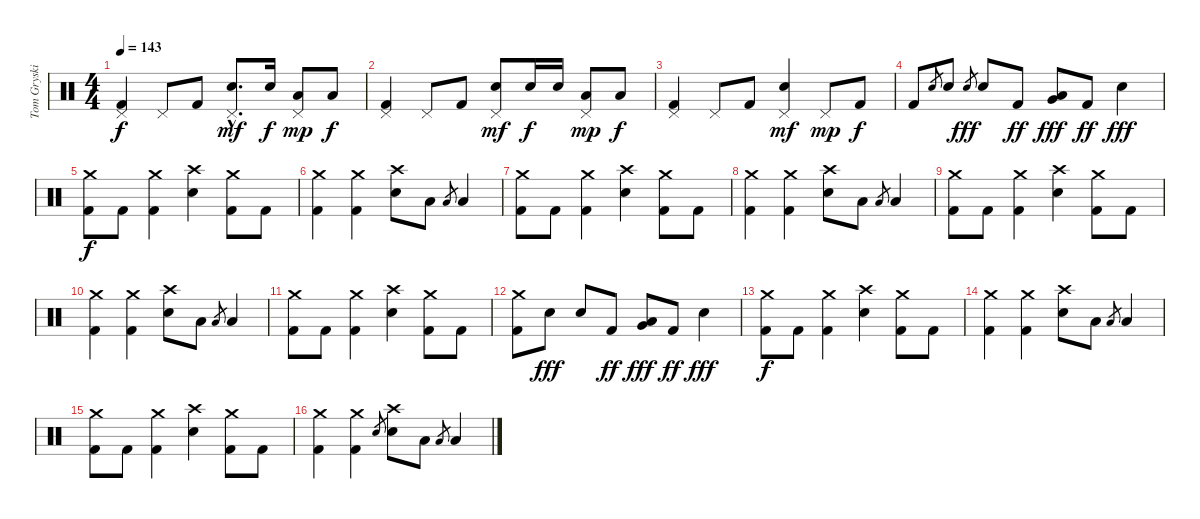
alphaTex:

\track ("Tom Gryskiewicz - Drums" "Tom Gryski") {instrument percussion}
\staff {score}
\articulation defaults
\ts (4 4)
\tempo 143
\clef neutral
\ks c
("Pedal Hi-Hat (hit)" "Kick (hit) 2").4{dy f} "Pedal Hi-Hat (hit)".8 "Kick (hit) 2".8 ("Pedal Hi-Hat (hit)"{hac} "Electric Snare (hit)"{hac}).8{d dy mf} "Electric Snare (hit)".16{dy f} ("Pedal Hi-Hat (hit)" "Low Tom (hit)").8{dy mp} "Low Tom (hit)".8{dy f} |
("Pedal Hi-Hat (hit)" "Kick (hit) 2").4 "Pedal Hi-Hat (hit)".8 "Kick (hit) 2".8 ("Pedal Hi-Hat (hit)" "Electric Snare (hit)").8{dy mf} "Electric Snare (hit)".16{dy f} "Electric Snare (hit)".16 ("Pedal Hi-Hat (hit)" "Low Tom (hit)").8{dy mp} "Low Tom (hit)".8{dy f} |
("Pedal Hi-Hat (hit)" "Kick (hit) 2").4 "Pedal Hi-Hat (hit)".8 "Kick (hit) 2".8 ("Pedal Hi-Hat (hit)" "Electric Snare (hit)").4{dy mf} "Pedal Hi-Hat (hit)".8{dy mp} "Kick (hit) 2".8{dy f} |
"Kick (hit) 2".8 "Electric Snare (hit)".8{gr} "Electric Snare (hit)".8 "Electric Snare (hit)".8{gr dy fff} "Electric Snare (hit)".8 "Kick (hit) 2".8{dy ff} ("Very Low Tom (hit)" "Low Tom (hit)").8{dy fff} "Kick (hit) 2".8{dy ff} "Electric Snare (hit)".4{dy fff} |
("Crash medium (hit)" "Kick (hit) 2").8{dy f} "Kick (hit) 2".8 ("Crash medium (hit)" "Kick (hit) 2").4 ("Crash high (hit)" "Electric Snare (hit)").4 ("Crash medium (hit)" "Kick (hit) 2").8 "Kick (hit) 2".8 |
("Crash medium (hit)" "Kick (hit) 2").4 ("Crash medium (hit)" "Kick (hit) 2").4 ("Crash high (hit)" "Electric Snare (hit)").8 "Low Tom (hit)".8 "Low Tom (hit)".8{gr} "Low Tom (hit)".4 |
("Crash medium (hit)" "Kick (hit) 2").8 "Kick (hit) 2".8 ("Crash medium (hit)" "Kick (hit) 2").4 ("Crash high (hit)" "Electric Snare (hit)").4 ("Crash medium (hit)" "Kick (hit) 2").8 "Kick (hit) 2".8 |
("Crash medium (hit)" "Kick (hit) 2").4 ("Crash medium (hit)" "Kick (hit) 2").4 ("Crash high (hit)" "Electric Snare (hit)").8 "Low Tom (hit)".8 "Low Tom (hit)".8{gr} "Low Tom (hit)".4 |
("Crash medium (hit)" "Kick (hit) 2").8 "Kick (hit) 2".8 ("Crash medium (hit)" "Kick (hit) 2").4 ("Crash high (hit)" "Electric Snare (hit)").4 ("Crash medium (hit)" "Kick (hit) 2").8 "Kick (hit) 2".8 |
("Crash medium (hit)" "Kick (hit) 2").4 ("Crash medium (hit)" "Kick (hit) 2").4 ("Crash high (hit)" "Electric Snare (hit)").8 "Low Tom (hit)".8 "Low Tom (hit)".8{gr} "Low Tom (hit)".4 |
("Crash medium (hit)" "Kick (hit) 2").8 "Kick (hit) 2".8 ("Crash medium (hit)" "Kick (hit) 2").4 ("Crash high (hit)" "Electric Snare (hit)").4 ("Crash medium (hit)" "Kick (hit) 2").8 "Kick (hit) 2".8 |
("Crash medium (hit)" "Kick (hit) 2").8 "Electric Snare (hit)".8{dy fff} "Electric Snare (hit)".8 "Kick (hit) 2".8{dy ff} ("Very Low Tom (hit)" "Low Tom (hit)").8{dy fff} "Kick (hit) 2".8{dy ff} "Electric Snare (hit)".4{dy fff} |
("Crash medium (hit)" "Kick (hit) 2").8{dy f} "Kick (hit) 2".8 ("Crash medium (hit)" "Kick (hit) 2").4 ("Crash high (hit)" "Electric Snare (hit)").4 ("Crash medium (hit)" "Kick (hit) 2").8 "Kick (hit) 2".8 |
("Crash medium (hit)" "Kick (hit) 2").4 ("Crash medium (hit)" "Kick (hit) 2").4 ("Crash high (hit)" "Electric Snare (hit)").8 "Low Tom (hit)".8 "Low Tom (hit)".8{gr} "Low Tom (hit)".4 |
("Crash medium (hit)" "Kick (hit) 2").8 "Kick (hit) 2".8 ("Crash medium (hit)" "Kick (hit) 2").4 ("Crash high (hit)" "Electric Snare (hit)").4 ("Crash medium (hit)" "Kick (hit) 2").8 "Kick (hit) 2".8 |
("Crash medium (hit)" "Kick (hit) 2").4 ("Crash medium (hit)" "Kick (hit) 2").4 "Electric Snare (hit)".8{gr} ("Crash high (hit)" "Electric Snare (hit)").8 "Low Tom (hit)".8 "Low Tom (hit)".8{gr} "Low Tom (hit)".4
